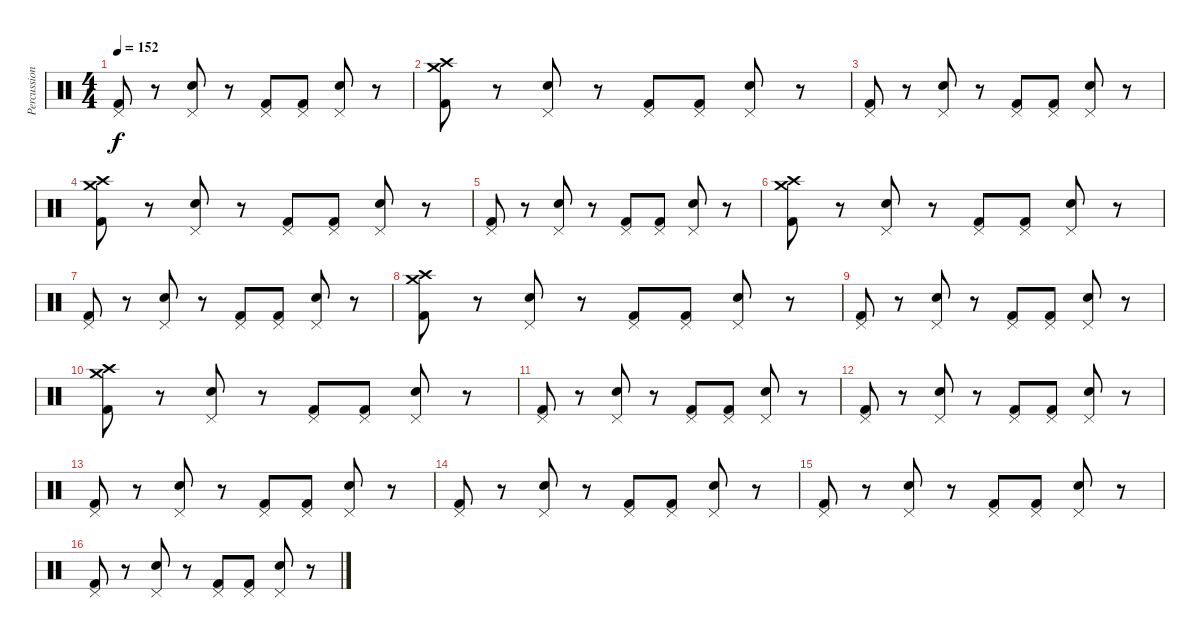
\track ("Percussion" "Percussion") {instrument percussion}
\staff {score}
\articulation defaults
\ts (4 4)
\tempo 152
\clef neutral
\ks c
("Kick (hit) 2" "Pedal Hi-Hat (hit)").8{dy f} r.8 ("Snare (hit) 2" "Pedal Hi-Hat (hit)").8 r.8 ("Kick (hit) 2" "Pedal Hi-Hat (hit)").8 ("Kick (hit) 2" "Pedal Hi-Hat (hit)").8 ("Snare (hit) 2" "Pedal Hi-Hat (hit)").8 r.8 |
("Kick (hit) 2" "Crash high (hit)" "Crash medium (hit)").8 r.8 ("Snare (hit) 2" "Pedal Hi-Hat (hit)").8 r.8 ("Kick (hit) 2" "Pedal Hi-Hat (hit)").8 ("Kick (hit) 2" "Pedal Hi-Hat (hit)").8 ("Snare (hit) 2" "Pedal Hi-Hat (hit)").8 r.8 |
("Kick (hit) 2" "Pedal Hi-Hat (hit)").8 r.8 ("Snare (hit) 2" "Pedal Hi-Hat (hit)").8 r.8 ("Kick (hit) 2" "Pedal Hi-Hat (hit)").8 ("Kick (hit) 2" "Pedal Hi-Hat (hit)").8 ("Snare (hit) 2" "Pedal Hi-Hat (hit)").8 r.8 |
("Kick (hit) 2" "Crash high (hit)" "Crash medium (hit)").8 r.8 ("Snare (hit) 2" "Pedal Hi-Hat (hit)").8 r.8 ("Kick (hit) 2" "Pedal Hi-Hat (hit)").8 ("Kick (hit) 2" "Pedal Hi-Hat (hit)").8 ("Snare (hit) 2" "Pedal Hi-Hat (hit)").8 r.8 |
("Kick (hit) 2" "Pedal Hi-Hat (hit)").8 r.8 ("Snare (hit) 2" "Pedal Hi-Hat (hit)").8 r.8 ("Kick (hit) 2" "Pedal Hi-Hat (hit)").8 ("Kick (hit) 2" "Pedal Hi-Hat (hit)").8 ("Snare (hit) 2" "Pedal Hi-Hat (hit)").8 r.8 |
("Kick (hit) 2" "Crash high (hit)" "Crash medium (hit)").8 r.8 ("Snare (hit) 2" "Pedal Hi-Hat (hit)").8 r.8 ("Kick (hit) 2" "Pedal Hi-Hat (hit)").8 ("Kick (hit) 2" "Pedal Hi-Hat (hit)").8 ("Snare (hit) 2" "Pedal Hi-Hat (hit)").8 r.8 |
("Kick (hit) 2" "Pedal Hi-Hat (hit)").8 r.8 ("Snare (hit) 2" "Pedal Hi-Hat (hit)").8 r.8 ("Kick (hit) 2" "Pedal Hi-Hat (hit)").8 ("Kick (hit) 2" "Pedal Hi-Hat (hit)").8 ("Snare (hit) 2" "Pedal Hi-Hat (hit)").8 r.8 |
("Kick (hit) 2" "Crash high (hit)" "Crash medium (hit)").8 r.8 ("Snare (hit) 2" "Pedal Hi-Hat (hit)").8 r.8 ("Kick (hit) 2" "Pedal Hi-Hat (hit)").8 ("Kick (hit) 2" "Pedal Hi-Hat (hit)").8 ("Snare (hit) 2" "Pedal Hi-Hat (hit)").8 r.8 |
("Kick (hit) 2" "Pedal Hi-Hat (hit)").8 r.8 ("Snare (hit) 2" "Pedal Hi-Hat (hit)").8 r.8 ("Kick (hit) 2" "Pedal Hi-Hat (hit)").8 ("Kick (hit) 2" "Pedal Hi-Hat (hit)").8 ("Snare (hit) 2" "Pedal Hi-Hat (hit)").8 r.8 |
("Kick (hit) 2" "Crash high (hit)" "Crash medium (hit)").8 r.8 ("Snare (hit) 2" "Pedal Hi-Hat (hit)").8 r.8 ("Kick (hit) 2" "Pedal Hi-Hat (hit)").8 ("Kick (hit) 2" "Pedal Hi-Hat (hit)").8 ("Snare (hit) 2" "Pedal Hi-Hat (hit)").8 r.8 |
("Kick (hit) 2" "Pedal Hi-Hat (hit)").8 r.8 ("Snare (hit) 2" "Pedal Hi-Hat (hit)").8 r.8 ("Kick (hit) 2" "Pedal Hi-Hat (hit)").8 ("Kick (hit) 2" "Pedal Hi-Hat (hit)").8 ("Snare (hit) 2" "Pedal Hi-Hat (hit)").8 r.8 |
("Kick (hit) 2" "Pedal Hi-Hat (hit)").8 r.8 ("Snare (hit) 2" "Pedal Hi-Hat (hit)").8 r.8 ("Kick (hit) 2" "Pedal Hi-Hat (hit)").8 ("Kick (hit) 2" "Pedal Hi-Hat (hit)").8 ("Snare (hit) 2" "Pedal Hi-Hat (hit)").8 r.8 |
("Kick (hit) 2" "Pedal Hi-Hat (hit)").8 r.8 ("Snare (hit) 2" "Pedal Hi-Hat (hit)").8 r.8 ("Kick (hit) 2" "Pedal Hi-Hat (hit)").8 ("Kick (hit) 2" "Pedal Hi-Hat (hit)").8 ("Snare (hit) 2" "Pedal Hi-Hat (hit)").8 r.8 |
("Kick (hit) 2" "Pedal Hi-Hat (hit)").8 r.8 ("Snare (hit) 2" "Pedal Hi-Hat (hit)").8 r.8 ("Kick (hit) 2" "Pedal Hi-Hat (hit)").8 ("Kick (hit) 2" "Pedal Hi-Hat (hit)").8 ("Snare (hit) 2" "Pedal Hi-Hat (hit)").8 r.8 |
("Kick (hit) 2" "Pedal Hi-Hat (hit)").8 r.8 ("Snare (hit) 2" "Pedal Hi-Hat (hit)").8 r.8 ("Kick (hit) 2" "Pedal Hi-Hat (hit)").8 ("Kick (hit) 2" "Pedal Hi-Hat (hit)").8 ("Snare (hit) 2" "Pedal Hi-Hat (hit)").8 r.8 |
("Kick (hit) 2" "Pedal Hi-Hat (hit)").8 r.8 ("Snare (hit) 2" "Pedal Hi-Hat (hit)").8 r.8 ("Kick (hit) 2" "Pedal Hi-Hat (hit)").8 ("Kick (hit) 2" "Pedal Hi-Hat (hit)").8 ("Snare (hit) 2" "Pedal Hi-Hat (hit)").8 r.8
